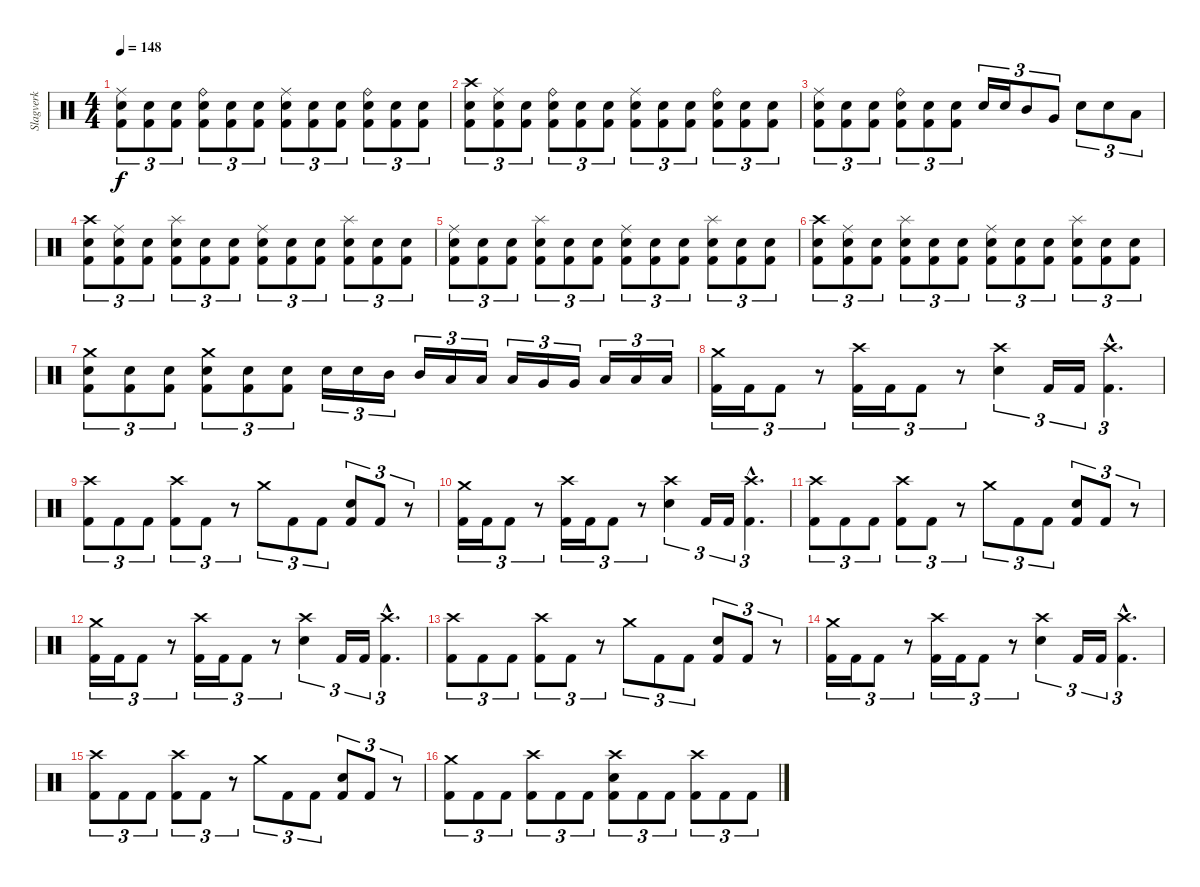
\track ("Slagverk" "Slagverk") {instrument percussion}
\staff {score}
\articulation defaults
\ts (4 4)
\tempo 148
\clef neutral
\ks c
("Ride (middle)" "Snare (hit) 2" "Kick (hit) 2").8{tu (3 2) dy f} ("Snare (hit) 2" "Kick (hit) 2").8{tu (3 2)} ("Snare (hit) 2" "Kick (hit) 2").8{tu (3 2)} ("Ride (bell)" "Snare (hit) 2" "Kick (hit) 2").8{tu (3 2)} ("Snare (hit) 2" "Kick (hit) 2").8{tu (3 2)} ("Snare (hit) 2" "Kick (hit) 2").8{tu (3 2)} ("Ride (middle)" "Snare (hit) 2" "Kick (hit) 2").8{tu (3 2)} ("Snare (hit) 2" "Kick (hit) 2").8{tu (3 2)} ("Snare (hit) 2" "Kick (hit) 2").8{tu (3 2)} ("Ride (bell)" "Snare (hit) 2" "Kick (hit) 2").8{tu (3 2)} ("Snare (hit) 2" "Kick (hit) 2").8{tu (3 2)} ("Snare (hit) 2" "Kick (hit) 2").8{tu (3 2)} |
("Crash high (hit)" "Snare (hit) 2" "Kick (hit) 2").8{tu (3 2)} ("Ride (middle)" "Snare (hit) 2" "Kick (hit) 2").8{tu (3 2)} ("Snare (hit) 2" "Kick (hit) 2").8{tu (3 2)} ("Ride (bell)" "Snare (hit) 2" "Kick (hit) 2").8{tu (3 2)} ("Snare (hit) 2" "Kick (hit) 2").8{tu (3 2)} ("Snare (hit) 2" "Kick (hit) 2").8{tu (3 2)} ("Ride (middle)" "Snare (hit) 2" "Kick (hit) 2").8{tu (3 2)} ("Snare (hit) 2" "Kick (hit) 2").8{tu (3 2)} ("Snare (hit) 2" "Kick (hit) 2").8{tu (3 2)} ("Ride (bell)" "Snare (hit) 2" "Kick (hit) 2").8{tu (3 2)} ("Snare (hit) 2" "Kick (hit) 2").8{tu (3 2)} ("Snare (hit) 2" "Kick (hit) 2").8{tu (3 2)} |
("Ride (middle)" "Snare (hit) 2" "Kick (hit) 2").8{tu (3 2)} ("Snare (hit) 2" "Kick (hit) 2").8{tu (3 2)} ("Snare (hit) 2" "Kick (hit) 2").8{tu (3 2)} ("Ride (bell)" "Snare (hit) 2" "Kick (hit) 2").8{tu (3 2)} ("Snare (hit) 2" "Kick (hit) 2").8{tu (3 2)} ("Snare (hit) 2" "Kick (hit) 2").8{tu (3 2)} "Snare (hit) 2".16{tu (3 2)} "Snare (hit) 2".16{tu (3 2)} "Mid Tom (hit)".8{tu (3 2)} "Very Low Tom (hit)".8{tu (3 2)} "Snare (hit) 2".8{tu (3 2)} "Snare (hit) 2".8{tu (3 2)} "Low Tom (hit)".8{tu (3 2)} |
("Crash high (hit)" "Snare (hit) 2" "Kick (hit) 2").8{tu (3 2)} ("Ride (middle)" "Snare (hit) 2" "Kick (hit) 2").8{tu (3 2)} ("Snare (hit) 2" "Kick (hit) 2").8{tu (3 2)} ("Splash (hit)" "Snare (hit) 2" "Kick (hit) 2").8{tu (3 2)} ("Snare (hit) 2" "Kick (hit) 2").8{tu (3 2)} ("Snare (hit) 2" "Kick (hit) 2").8{tu (3 2)} ("Ride (middle)" "Snare (hit) 2" "Kick (hit) 2").8{tu (3 2)} ("Snare (hit) 2" "Kick (hit) 2").8{tu (3 2)} ("Snare (hit) 2" "Kick (hit) 2").8{tu (3 2)} ("Splash (hit)" "Snare (hit) 2" "Kick (hit) 2").8{tu (3 2)} ("Snare (hit) 2" "Kick (hit) 2").8{tu (3 2)} ("Snare (hit) 2" "Kick (hit) 2").8{tu (3 2)} |
("Ride (middle)" "Snare (hit) 2" "Kick (hit) 2").8{tu (3 2)} ("Snare (hit) 2" "Kick (hit) 2").8{tu (3 2)} ("Snare (hit) 2" "Kick (hit) 2").8{tu (3 2)} ("Splash (hit)" "Snare (hit) 2" "Kick (hit) 2").8{tu (3 2)} ("Snare (hit) 2" "Kick (hit) 2").8{tu (3 2)} ("Snare (hit) 2" "Kick (hit) 2").8{tu (3 2)} ("Ride (middle)" "Snare (hit) 2" "Kick (hit) 2").8{tu (3 2)} ("Snare (hit) 2" "Kick (hit) 2").8{tu (3 2)} ("Snare (hit) 2" "Kick (hit) 2").8{tu (3 2)} ("Splash (hit)" "Snare (hit) 2" "Kick (hit) 2").8{tu (3 2)} ("Snare (hit) 2" "Kick (hit) 2").8{tu (3 2)} ("Snare (hit) 2" "Kick (hit) 2").8{tu (3 2)} |
("Crash high (hit)" "Snare (hit) 2" "Kick (hit) 2").8{tu (3 2)} ("Ride (middle)" "Snare (hit) 2" "Kick (hit) 2").8{tu (3 2)} ("Snare (hit) 2" "Kick (hit) 2").8{tu (3 2)} ("Splash (hit)" "Snare (hit) 2" "Kick (hit) 2").8{tu (3 2)} ("Snare (hit) 2" "Kick (hit) 2").8{tu (3 2)} ("Snare (hit) 2" "Kick (hit) 2").8{tu (3 2)} ("Ride (middle)" "Snare (hit) 2" "Kick (hit) 2").8{tu (3 2)} ("Snare (hit) 2" "Kick (hit) 2").8{tu (3 2)} ("Snare (hit) 2" "Kick (hit) 2").8{tu (3 2)} ("Splash (hit)" "Snare (hit) 2" "Kick (hit) 2").8{tu (3 2)} ("Snare (hit) 2" "Kick (hit) 2").8{tu (3 2)} ("Snare (hit) 2" "Kick (hit) 2").8{tu (3 2)} |
("Crash medium (hit)" "Snare (hit) 2" "Kick (hit) 2").8{tu (3 2)} ("Snare (hit) 2" "Kick (hit) 2").8{tu (3 2)} ("Snare (hit) 2" "Kick (hit) 2").8{tu (3 2)} ("Crash medium (hit)" "Snare (hit) 2" "Kick (hit) 2").8{tu (3 2)} ("Snare (hit) 2" "Kick (hit) 2").8{tu (3 2)} ("Snare (hit) 2" "Kick (hit) 2").8{tu (3 2)} "Snare (hit) 2".16{tu (3 2)} "Snare (hit) 2".16{tu (3 2)} "Mid Tom (hit)".16{tu (3 2)} "Mid Tom (hit)".16{tu (3 2)} "Low Tom (hit)".16{tu (3 2)} "Low Tom (hit)".16{tu (3 2)} "Low Tom (hit)".16{tu (3 2)} "Very Low Tom (hit)".16{tu (3 2)} "Very Low Tom (hit)".16{tu (3 2)} "Low Floor Tom (hit)".16{tu (3 2)} "Low Floor Tom (hit)".16{tu (3 2)} "Low Floor Tom (hit)".16{tu (3 2)} |
("Crash medium (hit)" "Kick (hit) 2").16{tu (3 2)} "Kick (hit) 2".16{tu (3 2)} "Kick (hit) 2".8{tu (3 2)} r.8{tu (3 2)} ("Crash high (hit)" "Kick (hit) 2").16{tu (3 2)} "Kick (hit) 2".16{tu (3 2)} "Kick (hit) 2".8{tu (3 2)} r.8{tu (3 2)} ("Crash high (hit)" "Snare (hit) 2").4{tu (3 2)} "Kick (hit) 2".16{tu (3 2)} "Kick (hit) 2".16{tu (3 2)} ("Crash high (hit)"{hac} "Kick (hit) 2"{hac}).4{d tu (3 2)} |
("Crash high (hit)" "Kick (hit) 2").8{tu (3 2)} "Kick (hit) 2".8{tu (3 2)} "Kick (hit) 2".8{tu (3 2)} ("Crash high (hit)" "Kick (hit) 2").8{tu (3 2)} "Kick (hit) 2".8{tu (3 2)} r.8{tu (3 2)} "Crash medium (hit)".8{tu (3 2)} "Kick (hit) 2".8{tu (3 2)} "Kick (hit) 2".8{tu (3 2)} ("Snare (hit) 2" "Kick (hit) 2").8{tu (3 2)} "Kick (hit) 2".8{tu (3 2)} r.8{tu (3 2)} |
("Crash medium (hit)" "Kick (hit) 2").16{tu (3 2)} "Kick (hit) 2".16{tu (3 2)} "Kick (hit) 2".8{tu (3 2)} r.8{tu (3 2)} ("Crash high (hit)" "Kick (hit) 2").16{tu (3 2)} "Kick (hit) 2".16{tu (3 2)} "Kick (hit) 2".8{tu (3 2)} r.8{tu (3 2)} ("Crash high (hit)" "Snare (hit) 2").4{tu (3 2)} "Kick (hit) 2".16{tu (3 2)} "Kick (hit) 2".16{tu (3 2)} ("Crash high (hit)"{hac} "Kick (hit) 2"{hac}).4{d tu (3 2)} |
("Crash high (hit)" "Kick (hit) 2").8{tu (3 2)} "Kick (hit) 2".8{tu (3 2)} "Kick (hit) 2".8{tu (3 2)} ("Crash high (hit)" "Kick (hit) 2").8{tu (3 2)} "Kick (hit) 2".8{tu (3 2)} r.8{tu (3 2)} "Crash medium (hit)".8{tu (3 2)} "Kick (hit) 2".8{tu (3 2)} "Kick (hit) 2".8{tu (3 2)} ("Snare (hit) 2" "Kick (hit) 2").8{tu (3 2)} "Kick (hit) 2".8{tu (3 2)} r.8{tu (3 2)} |
("Crash medium (hit)" "Kick (hit) 2").16{tu (3 2)} "Kick (hit) 2".16{tu (3 2)} "Kick (hit) 2".8{tu (3 2)} r.8{tu (3 2)} ("Crash high (hit)" "Kick (hit) 2").16{tu (3 2)} "Kick (hit) 2".16{tu (3 2)} "Kick (hit) 2".8{tu (3 2)} r.8{tu (3 2)} ("Crash high (hit)" "Snare (hit) 2").4{tu (3 2)} "Kick (hit) 2".16{tu (3 2)} "Kick (hit) 2".16{tu (3 2)} ("Crash high (hit)"{hac} "Kick (hit) 2"{hac}).4{d tu (3 2)} |
("Crash high (hit)" "Kick (hit) 2").8{tu (3 2)} "Kick (hit) 2".8{tu (3 2)} "Kick (hit) 2".8{tu (3 2)} ("Crash high (hit)" "Kick (hit) 2").8{tu (3 2)} "Kick (hit) 2".8{tu (3 2)} r.8{tu (3 2)} "Crash medium (hit)".8{tu (3 2)} "Kick (hit) 2".8{tu (3 2)} "Kick (hit) 2".8{tu (3 2)} ("Snare (hit) 2" "Kick (hit) 2").8{tu (3 2)} "Kick (hit) 2".8{tu (3 2)} r.8{tu (3 2)} |
("Crash medium (hit)" "Kick (hit) 2").16{tu (3 2)} "Kick (hit) 2".16{tu (3 2)} "Kick (hit) 2".8{tu (3 2)} r.8{tu (3 2)} ("Crash high (hit)" "Kick (hit) 2").16{tu (3 2)} "Kick (hit) 2".16{tu (3 2)} "Kick (hit) 2".8{tu (3 2)} r.8{tu (3 2)} ("Crash high (hit)" "Snare (hit) 2").4{tu (3 2)} "Kick (hit) 2".16{tu (3 2)} "Kick (hit) 2".16{tu (3 2)} ("Crash high (hit)"{hac} "Kick (hit) 2"{hac}).4{d tu (3 2)} |
("Crash high (hit)" "Kick (hit) 2").8{tu (3 2)} "Kick (hit) 2".8{tu (3 2)} "Kick (hit) 2".8{tu (3 2)} ("Crash high (hit)" "Kick (hit) 2").8{tu (3 2)} "Kick (hit) 2".8{tu (3 2)} r.8{tu (3 2)} "Crash medium (hit)".8{tu (3 2)} "Kick (hit) 2".8{tu (3 2)} "Kick (hit) 2".8{tu (3 2)} ("Snare (hit) 2" "Kick (hit) 2").8{tu (3 2)} "Kick (hit) 2".8{tu (3 2)} r.8{tu (3 2)} |
("Crash medium (hit)" "Kick (hit) 2").8{tu (3 2)} "Kick (hit) 2".8{tu (3 2)} "Kick (hit) 2".8{tu (3 2)} ("Crash high (hit)" "Kick (hit) 2").8{tu (3 2)} "Kick (hit) 2".8{tu (3 2)} "Kick (hit) 2".8{tu (3 2)} ("Crash high (hit)" "Snare (hit) 2" "Kick (hit) 2").8{tu (3 2)} "Kick (hit) 2".8{tu (3 2)} "Kick (hit) 2".8{tu (3 2)} ("Crash high (hit)" "Kick (hit) 2").8{tu (3 2)} "Kick (hit) 2".8{tu (3 2)} "Kick (hit) 2".8{tu (3 2)}
